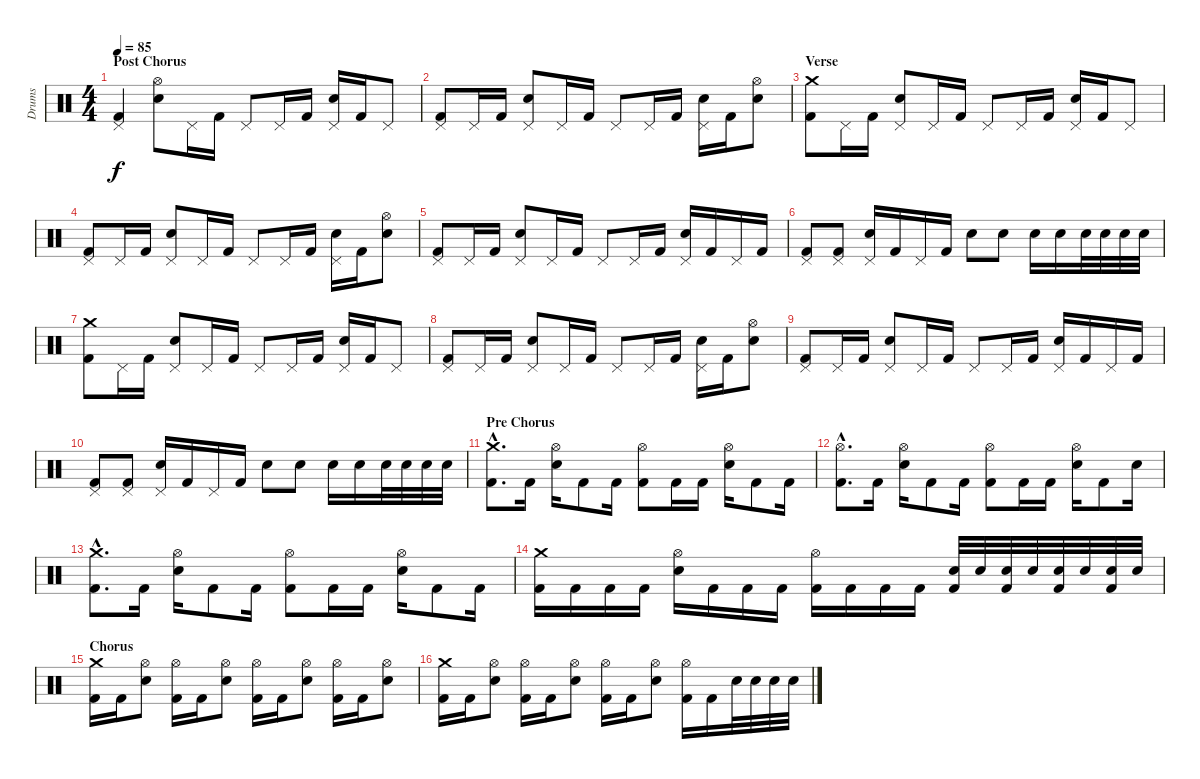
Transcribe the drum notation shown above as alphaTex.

\track ("Drums" "Drums") {instrument percussion}
\staff {score}
\articulation defaults
\ts (4 4)
\section ("" "Post Chorus")
\tempo 85
\clef neutral
\ks c
("Pedal Hi-Hat (hit)" "Kick (hit) 2").4{dy f} ("Hi-Hat (open)" "Electric Snare (hit)").8 "Pedal Hi-Hat (hit)".16 "Kick (hit) 2".16 "Pedal Hi-Hat (hit)".8 "Pedal Hi-Hat (hit)".16 "Kick (hit) 2".16 ("Pedal Hi-Hat (hit)" "Electric Snare (hit)").16 "Kick (hit) 2".16 "Pedal Hi-Hat (hit)".8 |
("Pedal Hi-Hat (hit)" "Kick (hit) 2").8 "Pedal Hi-Hat (hit)".16 "Kick (hit) 2".16 ("Pedal Hi-Hat (hit)" "Electric Snare (hit)").8 "Pedal Hi-Hat (hit)".16 "Kick (hit) 2".16 "Pedal Hi-Hat (hit)".8 "Pedal Hi-Hat (hit)".16 "Kick (hit) 2".16 ("Pedal Hi-Hat (hit)" "Electric Snare (hit)").16 "Kick (hit) 2".16 ("Hi-Hat (open)" "Electric Snare (hit)").8 |
\section ("" "Verse")
("Crash medium (hit)" "Kick (hit) 2").8 "Pedal Hi-Hat (hit)".16 "Kick (hit) 2".16 ("Pedal Hi-Hat (hit)" "Electric Snare (hit)").8 "Pedal Hi-Hat (hit)".16 "Kick (hit) 2".16 "Pedal Hi-Hat (hit)".8 "Pedal Hi-Hat (hit)".16 "Kick (hit) 2".16 ("Pedal Hi-Hat (hit)" "Electric Snare (hit)").16 "Kick (hit) 2".16 "Pedal Hi-Hat (hit)".8 |
("Pedal Hi-Hat (hit)" "Kick (hit) 2").8 "Pedal Hi-Hat (hit)".16 "Kick (hit) 2".16 ("Pedal Hi-Hat (hit)" "Electric Snare (hit)").8 "Pedal Hi-Hat (hit)".16 "Kick (hit) 2".16 "Pedal Hi-Hat (hit)".8 "Pedal Hi-Hat (hit)".16 "Kick (hit) 2".16 ("Pedal Hi-Hat (hit)" "Electric Snare (hit)").16 "Kick (hit) 2".16 ("Hi-Hat (open)" "Electric Snare (hit)").8 |
("Pedal Hi-Hat (hit)" "Kick (hit) 2").8 "Pedal Hi-Hat (hit)".16 "Kick (hit) 2".16 ("Pedal Hi-Hat (hit)" "Electric Snare (hit)").8 "Pedal Hi-Hat (hit)".16 "Kick (hit) 2".16 "Pedal Hi-Hat (hit)".8 "Pedal Hi-Hat (hit)".16 "Kick (hit) 2".16 ("Pedal Hi-Hat (hit)" "Electric Snare (hit)").16 "Kick (hit) 2".16 "Pedal Hi-Hat (hit)".16 "Kick (hit) 2".16 |
("Pedal Hi-Hat (hit)" "Kick (hit) 2").8 ("Pedal Hi-Hat (hit)" "Kick (hit) 2").8 ("Pedal Hi-Hat (hit)" "Electric Snare (hit)").16 "Kick (hit) 2".16 "Pedal Hi-Hat (hit)".16 "Kick (hit) 2".16 "Electric Snare (hit)".8 "Electric Snare (hit)".8 "Electric Snare (hit)".16 "Electric Snare (hit)".16 "Electric Snare (hit)".32 "Electric Snare (hit)".32 "Electric Snare (hit)".32 "Electric Snare (hit)".32 |
("Crash medium (hit)" "Kick (hit) 2").8 "Pedal Hi-Hat (hit)".16 "Kick (hit) 2".16 ("Pedal Hi-Hat (hit)" "Electric Snare (hit)").8 "Pedal Hi-Hat (hit)".16 "Kick (hit) 2".16 "Pedal Hi-Hat (hit)".8 "Pedal Hi-Hat (hit)".16 "Kick (hit) 2".16 ("Pedal Hi-Hat (hit)" "Electric Snare (hit)").16 "Kick (hit) 2".16 "Pedal Hi-Hat (hit)".8 |
("Pedal Hi-Hat (hit)" "Kick (hit) 2").8 "Pedal Hi-Hat (hit)".16 "Kick (hit) 2".16 ("Pedal Hi-Hat (hit)" "Electric Snare (hit)").8 "Pedal Hi-Hat (hit)".16 "Kick (hit) 2".16 "Pedal Hi-Hat (hit)".8 "Pedal Hi-Hat (hit)".16 "Kick (hit) 2".16 ("Pedal Hi-Hat (hit)" "Electric Snare (hit)").16 "Kick (hit) 2".16 ("Hi-Hat (open)" "Electric Snare (hit)").8 |
("Pedal Hi-Hat (hit)" "Kick (hit) 2").8 "Pedal Hi-Hat (hit)".16 "Kick (hit) 2".16 ("Pedal Hi-Hat (hit)" "Electric Snare (hit)").8 "Pedal Hi-Hat (hit)".16 "Kick (hit) 2".16 "Pedal Hi-Hat (hit)".8 "Pedal Hi-Hat (hit)".16 "Kick (hit) 2".16 ("Pedal Hi-Hat (hit)" "Electric Snare (hit)").16 "Kick (hit) 2".16 "Pedal Hi-Hat (hit)".16 "Kick (hit) 2".16 |
("Pedal Hi-Hat (hit)" "Kick (hit) 2").8 ("Pedal Hi-Hat (hit)" "Kick (hit) 2").8 ("Pedal Hi-Hat (hit)" "Electric Snare (hit)").16 "Kick (hit) 2".16 "Pedal Hi-Hat (hit)".16 "Kick (hit) 2".16 "Electric Snare (hit)".8 "Electric Snare (hit)".8 "Electric Snare (hit)".16 "Electric Snare (hit)".16 "Electric Snare (hit)".32 "Electric Snare (hit)".32 "Electric Snare (hit)".32 "Electric Snare (hit)".32 |
\section ("" "Pre Chorus")
("Crash medium (hit)"{hac} "Kick (hit) 2"{hac}).8{d} "Kick (hit) 2".16 ("Hi-Hat (open)" "Electric Snare (hit)").16 "Kick (hit) 2".8 "Kick (hit) 2".16 ("Hi-Hat (open)" "Kick (hit) 2").8 "Kick (hit) 2".16 "Kick (hit) 2".16 ("Hi-Hat (open)" "Electric Snare (hit)").16 "Kick (hit) 2".8 "Kick (hit) 2".16 |
("Hi-Hat (open)"{hac} "Kick (hit) 2"{hac}).8{d} "Kick (hit) 2".16 ("Hi-Hat (open)" "Electric Snare (hit)").16 "Kick (hit) 2".8 "Kick (hit) 2".16 ("Hi-Hat (open)" "Kick (hit) 2").8 "Kick (hit) 2".16 "Kick (hit) 2".16 ("Hi-Hat (open)" "Electric Snare (hit)").16 "Kick (hit) 2".8 "Electric Snare (hit)".16 |
("Crash medium (hit)"{hac} "Kick (hit) 2"{hac}).8{d} "Kick (hit) 2".16 ("Hi-Hat (open)" "Electric Snare (hit)").16 "Kick (hit) 2".8 "Kick (hit) 2".16 ("Hi-Hat (open)" "Kick (hit) 2").8 "Kick (hit) 2".16 "Kick (hit) 2".16 ("Hi-Hat (open)" "Electric Snare (hit)").16 "Kick (hit) 2".8 "Kick (hit) 2".16 |
("Crash medium (hit)" "Kick (hit) 2").16 "Kick (hit) 2".16 "Kick (hit) 2".16 "Kick (hit) 2".16 ("Hi-Hat (open)" "Electric Snare (hit)").16 "Kick (hit) 2".16 "Kick (hit) 2".16 "Kick (hit) 2".16 ("Hi-Hat (open)" "Kick (hit) 2").16 "Kick (hit) 2".16 "Kick (hit) 2".16 "Kick (hit) 2".16 ("Electric Snare (hit)" "Kick (hit) 2").32 "Electric Snare (hit)".32 ("Electric Snare (hit)" "Kick (hit) 2").32 "Electric Snare (hit)".32 ("Electric Snare (hit)" "Kick (hit) 2").32 "Electric Snare (hit)".32 ("Electric Snare (hit)" "Kick (hit) 2").32 "Electric Snare (hit)".32 |
\section ("" "Chorus")
("Crash medium (hit)" "Kick (hit) 2").16 "Kick (hit) 2".16 ("Hi-Hat (open)" "Electric Snare (hit)").8 ("Hi-Hat (open)" "Kick (hit) 2").16 "Kick (hit) 2".16 ("Hi-Hat (open)" "Electric Snare (hit)").8 ("Hi-Hat (open)" "Kick (hit) 2").16 "Kick (hit) 2".16 ("Hi-Hat (open)" "Electric Snare (hit)").8 ("Hi-Hat (open)" "Kick (hit) 2").16 "Kick (hit) 2".16 ("Hi-Hat (open)" "Electric Snare (hit)").8 |
("Crash medium (hit)" "Kick (hit) 2").16 "Kick (hit) 2".16 ("Hi-Hat (open)" "Electric Snare (hit)").8 ("Hi-Hat (open)" "Kick (hit) 2").16 "Kick (hit) 2".16 ("Hi-Hat (open)" "Electric Snare (hit)").8 ("Hi-Hat (open)" "Kick (hit) 2").16 "Kick (hit) 2".16 ("Hi-Hat (open)" "Electric Snare (hit)").8 ("Hi-Hat (open)" "Kick (hit) 2").16 "Kick (hit) 2".16 "Electric Snare (hit)".32 "Electric Snare (hit)".32 "Electric Snare (hit)".32 "Electric Snare (hit)".32
